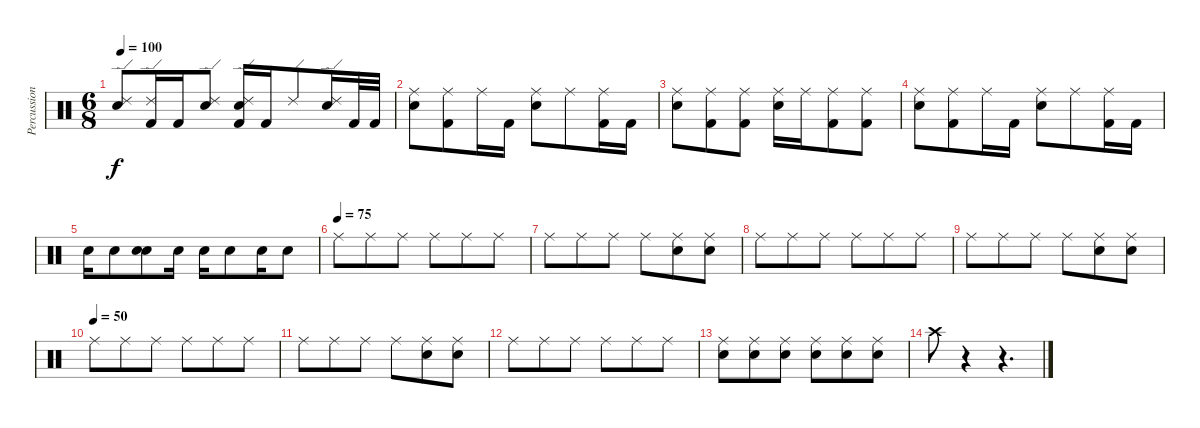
\track ("Percussion" "Percussion") {instrument percussion}
\staff {score}
\articulation defaults
\ts (6 8)
\tempo 100
\clef neutral
\ks c
("Ride (edge) 2" "Electric Snare (hit)").8{dy f} ("Ride (edge) 2" "Kick (hit) 2").16 "Kick (hit) 2".16 ("Ride (edge) 2" "Electric Snare (hit)").8 ("Ride (edge) 2" "Electric Snare (hit)" "Kick (hit) 2").16 "Kick (hit) 2".16 "Ride (edge) 2".8 ("Ride (edge) 2" "Electric Snare (hit)").16 "Kick (hit) 2".32 "Kick (hit) 2".32 |
("Ride (middle)" "Electric Snare (hit)").8 ("Ride (middle)" "Kick (hit) 2").8 "Ride (middle)".16 "Kick (hit) 2".16 ("Ride (middle)" "Electric Snare (hit)").8 "Ride (middle)".8 ("Ride (middle)" "Kick (hit) 2").16 "Kick (hit) 2".16 |
("Ride (middle)" "Electric Snare (hit)").8 ("Ride (middle)" "Kick (hit) 2").8 ("Ride (middle)" "Kick (hit) 2").8 ("Ride (middle)" "Electric Snare (hit)").16 "Ride (middle)".16 ("Ride (middle)" "Kick (hit) 2").8 ("Ride (middle)" "Kick (hit) 2").8 |
("Ride (middle)" "Electric Snare (hit)").8 ("Ride (middle)" "Kick (hit) 2").8 "Ride (middle)".16 "Kick (hit) 2".16 ("Ride (middle)" "Electric Snare (hit)").8 "Ride (middle)".8 ("Ride (middle)" "Kick (hit) 2").16 "Kick (hit) 2".16 |
"Electric Snare (hit)".16 "Electric Snare (hit)".8 ("Electric Snare (hit)" "Electric Snare (hit)").8 "Electric Snare (hit)".16 "Electric Snare (hit)".16 "Electric Snare (hit)".8 "Electric Snare (hit)".16 "Electric Snare (hit)".8 |
\tempo (75)
"Ride (middle)".8 "Ride (middle)".8 "Ride (middle)".8 "Ride (middle)".8 "Ride (middle)".8 "Ride (middle)".8 |
"Ride (middle)".8 "Ride (middle)".8 "Ride (middle)".8 "Ride (middle)".8 ("Ride (middle)" "Electric Snare (hit)").8 ("Ride (middle)" "Electric Snare (hit)").8 |
"Ride (middle)".8 "Ride (middle)".8 "Ride (middle)".8 "Ride (middle)".8 "Ride (middle)".8 "Ride (middle)".8 |
"Ride (middle)".8 "Ride (middle)".8 "Ride (middle)".8 "Ride (middle)".8 ("Ride (middle)" "Electric Snare (hit)").8 ("Ride (middle)" "Electric Snare (hit)").8 |
\tempo (50)
"Ride (middle)".8 "Ride (middle)".8 "Ride (middle)".8 "Ride (middle)".8 "Ride (middle)".8 "Ride (middle)".8 |
"Ride (middle)".8 "Ride (middle)".8 "Ride (middle)".8 "Ride (middle)".8 ("Ride (middle)" "Electric Snare (hit)").8 ("Ride (middle)" "Electric Snare (hit)").8 |
"Ride (middle)".8 "Ride (middle)".8 "Ride (middle)".8 "Ride (middle)".8 "Ride (middle)".8 "Ride (middle)".8 |
("Ride (middle)" "Electric Snare (hit)").8 ("Ride (middle)" "Electric Snare (hit)").8 ("Ride (middle)" "Electric Snare (hit)").8 ("Ride (middle)" "Electric Snare (hit)").8 ("Ride (middle)" "Electric Snare (hit)").8 ("Ride (middle)" "Electric Snare (hit)").8 |
"Crash high (hit)".8 r.4 r.4{d}
